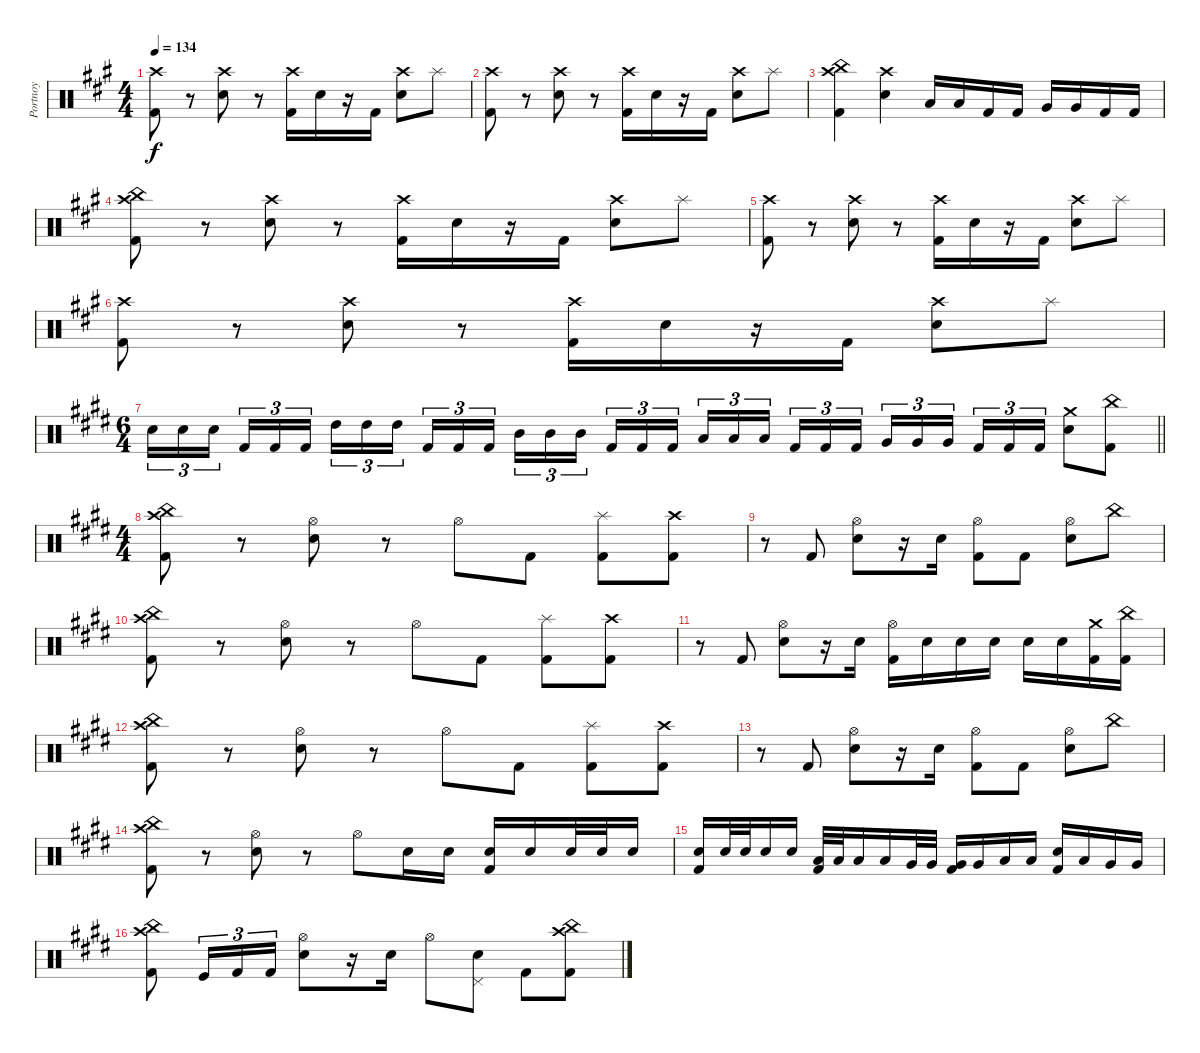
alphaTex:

\track ("Portnoy" "Portnoy") {instrument percussion}
\staff {score}
\articulation defaults
\ts (4 4)
\tempo 134
\clef neutral
\ks f#minor
("Kick (hit) 2" "Crash high (hit)").8{dy f} r.8 ("Snare (hit) 2" "Crash high (hit)").8 r.8 ("Kick (hit) 2" "Crash high (hit)").16 "Snare (hit) 2".16 r.16 "Kick (hit) 2".16 ("Snare (hit) 2" "Crash high (hit)").8 "Splash (hit)".8 |
("Kick (hit) 2" "Crash high (hit)").8 r.8 ("Snare (hit) 2" "Crash high (hit)").8 r.8 ("Kick (hit) 2" "Crash high (hit)").16 "Snare (hit) 2".16 r.16 "Kick (hit) 2".16 ("Snare (hit) 2" "Crash high (hit)").8 "Splash (hit)".8 |
("Kick (hit) 2" "Crash high (hit)" "China (hit)").4 ("Crash high (hit)" "Snare (hit) 2").4 "Low Tom (hit)".16 "Low Tom (hit)".16 "Kick (hit) 2".16 "Kick (hit) 2".16 "Very Low Tom (hit)".16 "Very Low Tom (hit)".16 "Kick (hit) 2".16 "Kick (hit) 2".16 |
("Kick (hit) 2" "Crash high (hit)" "China (hit)").8 r.8 ("Snare (hit) 2" "Crash high (hit)").8 r.8 ("Kick (hit) 2" "Crash high (hit)").16 "Snare (hit) 2".16 r.16 "Kick (hit) 2".16 ("Snare (hit) 2" "Crash high (hit)").8 "Splash (hit)".8 |
("Kick (hit) 2" "Crash high (hit)").8 r.8 ("Snare (hit) 2" "Crash high (hit)").8 r.8 ("Kick (hit) 2" "Crash high (hit)").16 "Snare (hit) 2".16 r.16 "Kick (hit) 2".16 ("Snare (hit) 2" "Crash high (hit)").8 "Splash (hit)".8 |
("Kick (hit) 2" "Crash high (hit)").8 r.8 ("Snare (hit) 2" "Crash high (hit)").8 r.8 ("Kick (hit) 2" "Crash high (hit)").16 "Snare (hit) 2".16 r.16 "Kick (hit) 2".16 ("Snare (hit) 2" "Crash high (hit)").8 "Splash (hit)".8 |
\ts (6 4)
\barLineRight lightlight
\ks c#minor "Snare (hit) 2".16{tu (3 2)} "Snare (hit) 2".16{tu (3 2)} "Snare (hit) 2".16{tu (3 2) beam splitsecondary} "Kick (hit) 2".16{tu (3 2)} "Kick (hit) 2".16{tu (3 2)} "Kick (hit) 2".16{tu (3 2) beam splitsecondary} "High Tom (hit)".16{tu (3 2)} "High Tom (hit)".16{tu (3 2)} "High Tom (hit)".16{tu (3 2) beam splitsecondary} "Kick (hit) 2".16{tu (3 2)} "Kick (hit) 2".16{tu (3 2)} "Kick (hit) 2".16{tu (3 2) beam splitsecondary} "Mid Tom (hit)".16{tu (3 2)} "Mid Tom (hit)".16{tu (3 2)} "Mid Tom (hit)".16{tu (3 2) beam splitsecondary} "Kick (hit) 2".16{tu (3 2)} "Kick (hit) 2".16{tu (3 2)} "Kick (hit) 2".16{tu (3 2)} "Low Tom (hit)".16{tu (3 2)} "Low Tom (hit)".16{tu (3 2)} "Low Tom (hit)".16{tu (3 2) beam splitsecondary} "Kick (hit) 2".16{tu (3 2)} "Kick (hit) 2".16{tu (3 2)} "Kick (hit) 2".16{tu (3 2) beam splitsecondary} "Very Low Tom (hit)".16{tu (3 2)} "Very Low Tom (hit)".16{tu (3 2)} "Very Low Tom (hit)".16{tu (3 2) beam splitsecondary} "Kick (hit) 2".16{tu (3 2)} "Kick (hit) 2".16{tu (3 2)} "Kick (hit) 2".16{tu (3 2)}
("Snare (hit) 2" "Crash medium (hit)").8 ("Kick (hit) 2" "China (hit)").8 |
\ts (4 4)
("Kick (hit) 2" "Crash high (hit)" "China (hit)").8 r.8 ("Snare (hit) 2" "Hi-Hat (open)").8 r.8 "Hi-Hat (open)".8 "Kick (hit) 2".8 ("Kick (hit) 2" "Splash (hit)").8 ("Kick (hit) 2" "Crash high (hit)").8 |
r.8 "Kick (hit) 2".8 ("Snare (hit) 2" "Hi-Hat (open)").8 r.16 "Electric Snare (hit)".16 ("Kick (hit) 2" "Hi-Hat (open)").8 "Kick (hit) 2".8 ("Snare (hit) 2" "Hi-Hat (open)").8 "China (hit)".8 |
("Kick (hit) 2" "Crash high (hit)" "China (hit)").8 r.8 ("Snare (hit) 2" "Hi-Hat (open)").8 r.8 "Hi-Hat (open)".8 "Kick (hit) 2".8 ("Kick (hit) 2" "Splash (hit)").8 ("Kick (hit) 2" "Crash high (hit)").8 |
r.8 "Kick (hit) 2".8 ("Snare (hit) 2" "Hi-Hat (open)").8 r.16 "Electric Snare (hit)".16 ("Kick (hit) 2" "Hi-Hat (open)").16 "Electric Snare (hit)".16 "Snare (hit) 2".16 "Snare (hit) 2".16 "Snare (hit) 2".16 "Snare (hit) 2".16 ("Kick (hit) 2" "Crash medium (hit)").16 ("Kick (hit) 2" "China (hit)").16 |
("Kick (hit) 2" "Crash high (hit)" "China (hit)").8 r.8 ("Snare (hit) 2" "Hi-Hat (open)").8 r.8 "Hi-Hat (open)".8 "Kick (hit) 2".8 ("Kick (hit) 2" "Splash (hit)").8 ("Kick (hit) 2" "Crash high (hit)").8 |
r.8 "Kick (hit) 2".8 ("Snare (hit) 2" "Hi-Hat (open)").8 r.16 "Electric Snare (hit)".16 ("Kick (hit) 2" "Hi-Hat (open)").8 "Kick (hit) 2".8 ("Snare (hit) 2" "Hi-Hat (open)").8 "China (hit)".8 |
("Kick (hit) 2" "Crash high (hit)" "China (hit)").8 r.8 ("Snare (hit) 2" "Hi-Hat (open)").8 r.8 "Hi-Hat (open)".8 "Electric Snare (hit)".16 "Electric Snare (hit)".16 ("Electric Snare (hit)" "Kick (hit) 2").16 "Electric Snare (hit)".16 "Electric Snare (hit)".32 "Electric Snare (hit)".32 "Electric Snare (hit)".16 |
("Electric Snare (hit)" "Kick (hit) 2").16 "Electric Snare (hit)".32 "Electric Snare (hit)".32 "Electric Snare (hit)".16 "Electric Snare (hit)".16 ("Low Tom (hit)" "Kick (hit) 2").32 "Low Tom (hit)".32 "Low Tom (hit)".16 "Low Tom (hit)".16 "Very Low Tom (hit)".32 "Very Low Tom (hit)".32 ("Very Low Tom (hit)" "Kick (hit) 2").16 "Very Low Tom (hit)".16 "Low Floor Tom (hit)".16 "Low Floor Tom (hit)".16 ("Snare (hit) 2" "Kick (hit) 2").16 "Low Tom (hit)".16 "Very Low Tom (hit)".16 "Very Low Tom (hit)".16 |
("Kick (hit) 2" "Crash high (hit)" "China (hit)").8 "Kick (hit)".16{tu (3 2)} "Kick (hit) 2".16{tu (3 2)} "Kick (hit) 2".16{tu (3 2)} ("Snare (hit) 2" "Hi-Hat (open)").8 r.16 "Electric Snare (hit)".16 "Hi-Hat (open)".8 ("Snare (hit) 2" "Pedal Hi-Hat (hit)").8 "Kick (hit) 2".8 ("Kick (hit) 2" "Crash high (hit)" "China (hit)").8
